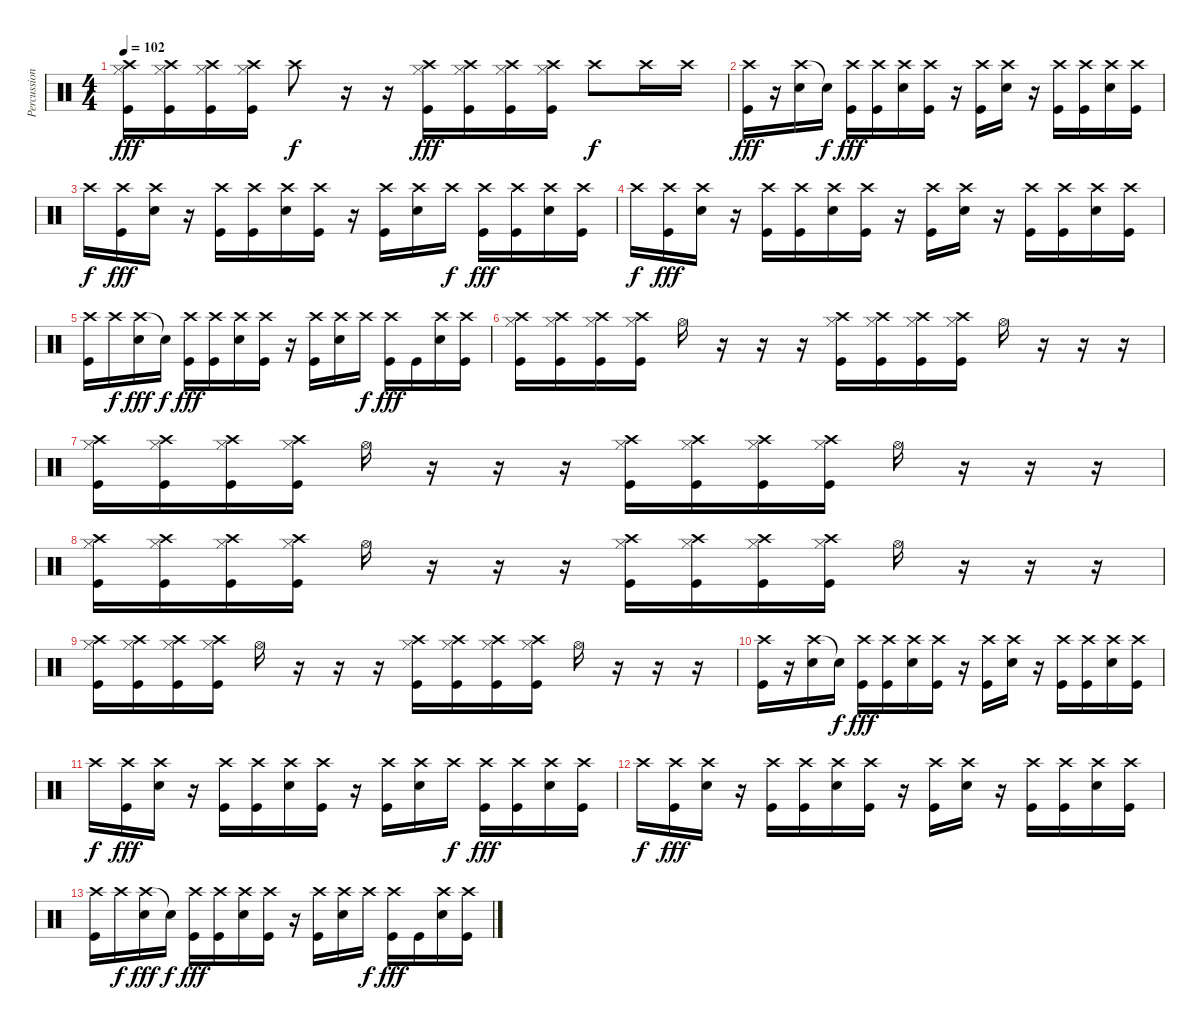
\track ("Percussion" "Percussion") {instrument percussion}
\staff {score}
\articulation defaults
\ts (4 4)
\tempo 102
\clef neutral
\ks c
("Crash high (hit)" "Hi-Hat (closed)" "Kick (hit)").16{dy fff} ("Crash high (hit)" "Hi-Hat (closed)" "Kick (hit)").16 ("Crash high (hit)" "Hi-Hat (closed)" "Kick (hit)").16 ("Crash high (hit)" "Hi-Hat (closed)" "Kick (hit)").16 "Crash high (hit)".8{dy f} r.16 r.16 ("Crash high (hit)" "Hi-Hat (closed)" "Kick (hit)").16{dy fff} ("Crash high (hit)" "Hi-Hat (closed)" "Kick (hit)").16 ("Crash high (hit)" "Hi-Hat (closed)" "Kick (hit)").16 ("Crash high (hit)" "Hi-Hat (closed)" "Kick (hit)").16 "Crash high (hit)".8{dy f} "Crash high (hit)".16 "Crash high (hit)".16 |
("Crash high (hit)" "Kick (hit)").16{dy fff} r.16 ("Crash high (hit)" "Electric Snare (hit)").16 "Snare (hit)"{t}.16{dy f} ("Crash high (hit)" "Kick (hit)").16{dy fff} ("Crash high (hit)" "Kick (hit)").16 ("Crash high (hit)" "Electric Snare (hit)").16 ("Crash high (hit)" "Kick (hit)").16 r.16 ("Crash high (hit)" "Kick (hit)").16 ("Crash high (hit)" "Electric Snare (hit)").16 r.16 ("Crash high (hit)" "Kick (hit)").16 ("Crash high (hit)" "Kick (hit)").16 ("Crash high (hit)" "Electric Snare (hit)").16 ("Crash high (hit)" "Kick (hit)").16 |
"Crash high (hit)".16{dy f} ("Crash high (hit)" "Kick (hit)").16{dy fff} ("Crash high (hit)" "Electric Snare (hit)").16 r.16 ("Crash high (hit)" "Kick (hit)").16 ("Crash high (hit)" "Kick (hit)").16 ("Crash high (hit)" "Electric Snare (hit)").16 ("Crash high (hit)" "Kick (hit)").16 r.16 ("Crash high (hit)" "Kick (hit)").16 ("Crash high (hit)" "Electric Snare (hit)").16 "Crash high (hit)".16{dy f} ("Crash high (hit)" "Kick (hit)").16{dy fff} ("Crash high (hit)" "Kick (hit)").16 ("Crash high (hit)" "Electric Snare (hit)").16 ("Crash high (hit)" "Kick (hit)").16 |
"Crash high (hit)".16{dy f} ("Crash high (hit)" "Kick (hit)").16{dy fff} ("Crash high (hit)" "Electric Snare (hit)").16 r.16 ("Crash high (hit)" "Kick (hit)").16 ("Crash high (hit)" "Kick (hit)").16 ("Crash high (hit)" "Electric Snare (hit)").16 ("Crash high (hit)" "Kick (hit)").16 r.16 ("Crash high (hit)" "Kick (hit)").16 ("Crash high (hit)" "Electric Snare (hit)").16 r.16 ("Crash high (hit)" "Kick (hit)").16 ("Crash high (hit)" "Kick (hit)").16 ("Crash high (hit)" "Electric Snare (hit)").16 ("Crash high (hit)" "Kick (hit)").16 |
("Crash high (hit)" "Kick (hit)").16 "Crash high (hit)".16{dy f} ("Crash high (hit)" "Electric Snare (hit)").16{dy fff} "Snare (hit)"{t}.16{dy f} ("Crash high (hit)" "Kick (hit)").16{dy fff} ("Crash high (hit)" "Kick (hit)").16 ("Crash high (hit)" "Electric Snare (hit)").16 ("Crash high (hit)" "Kick (hit)").16 r.16 ("Crash high (hit)" "Kick (hit)").16 ("Crash high (hit)" "Electric Snare (hit)").16 "Crash high (hit)".16{dy f} ("Crash high (hit)" "Kick (hit)").16{dy fff} "Kick (hit)".16 ("Crash high (hit)" "Electric Snare (hit)").16 ("Crash high (hit)" "Kick (hit)").16 |
("Crash high (hit)" "Hi-Hat (closed)" "Kick (hit)").16 ("Crash high (hit)" "Hi-Hat (closed)" "Kick (hit)").16 ("Crash high (hit)" "Hi-Hat (closed)" "Kick (hit)").16 ("Crash high (hit)" "Hi-Hat (closed)" "Kick (hit)").16 "Hi-Hat (open)".16 r.16 r.16 r.16 ("Crash high (hit)" "Hi-Hat (closed)" "Kick (hit)").16 ("Crash high (hit)" "Hi-Hat (closed)" "Kick (hit)").16 ("Crash high (hit)" "Hi-Hat (closed)" "Kick (hit)").16 ("Crash high (hit)" "Hi-Hat (closed)" "Kick (hit)").16 "Hi-Hat (open)".16 r.16 r.16 r.16 |
("Crash high (hit)" "Hi-Hat (closed)" "Kick (hit)").16 ("Crash high (hit)" "Hi-Hat (closed)" "Kick (hit)").16 ("Crash high (hit)" "Hi-Hat (closed)" "Kick (hit)").16 ("Crash high (hit)" "Hi-Hat (closed)" "Kick (hit)").16 "Hi-Hat (open)".16 r.16 r.16 r.16 ("Crash high (hit)" "Hi-Hat (closed)" "Kick (hit)").16 ("Crash high (hit)" "Hi-Hat (closed)" "Kick (hit)").16 ("Crash high (hit)" "Hi-Hat (closed)" "Kick (hit)").16 ("Crash high (hit)" "Hi-Hat (closed)" "Kick (hit)").16 "Hi-Hat (open)".16 r.16 r.16 r.16 |
("Crash high (hit)" "Hi-Hat (closed)" "Kick (hit)").16 ("Crash high (hit)" "Hi-Hat (closed)" "Kick (hit)").16 ("Crash high (hit)" "Hi-Hat (closed)" "Kick (hit)").16 ("Crash high (hit)" "Hi-Hat (closed)" "Kick (hit)").16 "Hi-Hat (open)".16 r.16 r.16 r.16 ("Crash high (hit)" "Hi-Hat (closed)" "Kick (hit)").16 ("Crash high (hit)" "Hi-Hat (closed)" "Kick (hit)").16 ("Crash high (hit)" "Hi-Hat (closed)" "Kick (hit)").16 ("Crash high (hit)" "Hi-Hat (closed)" "Kick (hit)").16 "Hi-Hat (open)".16 r.16 r.16 r.16 |
("Crash high (hit)" "Hi-Hat (closed)" "Kick (hit)").16 ("Crash high (hit)" "Hi-Hat (closed)" "Kick (hit)").16 ("Crash high (hit)" "Hi-Hat (closed)" "Kick (hit)").16 ("Crash high (hit)" "Hi-Hat (closed)" "Kick (hit)").16 "Hi-Hat (open)".16 r.16 r.16 r.16 ("Crash high (hit)" "Hi-Hat (closed)" "Kick (hit)").16 ("Crash high (hit)" "Hi-Hat (closed)" "Kick (hit)").16 ("Crash high (hit)" "Hi-Hat (closed)" "Kick (hit)").16 ("Crash high (hit)" "Hi-Hat (closed)" "Kick (hit)").16 "Hi-Hat (open)".16 r.16 r.16 r.16 |
("Crash high (hit)" "Kick (hit)").16 r.16 ("Crash high (hit)" "Electric Snare (hit)").16 "Snare (hit)"{t}.16{dy f} ("Crash high (hit)" "Kick (hit)").16{dy fff} ("Crash high (hit)" "Kick (hit)").16 ("Crash high (hit)" "Electric Snare (hit)").16 ("Crash high (hit)" "Kick (hit)").16 r.16 ("Crash high (hit)" "Kick (hit)").16 ("Crash high (hit)" "Electric Snare (hit)").16 r.16 ("Crash high (hit)" "Kick (hit)").16 ("Crash high (hit)" "Kick (hit)").16 ("Crash high (hit)" "Electric Snare (hit)").16 ("Crash high (hit)" "Kick (hit)").16 |
"Crash high (hit)".16{dy f} ("Crash high (hit)" "Kick (hit)").16{dy fff} ("Crash high (hit)" "Electric Snare (hit)").16 r.16 ("Crash high (hit)" "Kick (hit)").16 ("Crash high (hit)" "Kick (hit)").16 ("Crash high (hit)" "Electric Snare (hit)").16 ("Crash high (hit)" "Kick (hit)").16 r.16 ("Crash high (hit)" "Kick (hit)").16 ("Crash high (hit)" "Electric Snare (hit)").16 "Crash high (hit)".16{dy f} ("Crash high (hit)" "Kick (hit)").16{dy fff} ("Crash high (hit)" "Kick (hit)").16 ("Crash high (hit)" "Electric Snare (hit)").16 ("Crash high (hit)" "Kick (hit)").16 |
"Crash high (hit)".16{dy f} ("Crash high (hit)" "Kick (hit)").16{dy fff} ("Crash high (hit)" "Electric Snare (hit)").16 r.16 ("Crash high (hit)" "Kick (hit)").16 ("Crash high (hit)" "Kick (hit)").16 ("Crash high (hit)" "Electric Snare (hit)").16 ("Crash high (hit)" "Kick (hit)").16 r.16 ("Crash high (hit)" "Kick (hit)").16 ("Crash high (hit)" "Electric Snare (hit)").16 r.16 ("Crash high (hit)" "Kick (hit)").16 ("Crash high (hit)" "Kick (hit)").16 ("Crash high (hit)" "Electric Snare (hit)").16 ("Crash high (hit)" "Kick (hit)").16 |
("Crash high (hit)" "Kick (hit)").16 "Crash high (hit)".16{dy f} ("Crash high (hit)" "Electric Snare (hit)").16{dy fff} "Snare (hit)"{t}.16{dy f} ("Crash high (hit)" "Kick (hit)").16{dy fff} ("Crash high (hit)" "Kick (hit)").16 ("Crash high (hit)" "Electric Snare (hit)").16 ("Crash high (hit)" "Kick (hit)").16 r.16 ("Crash high (hit)" "Kick (hit)").16 ("Crash high (hit)" "Electric Snare (hit)").16 "Crash high (hit)".16{dy f} ("Crash high (hit)" "Kick (hit)").16{dy fff} "Kick (hit)".16 ("Crash high (hit)" "Electric Snare (hit)").16 ("Crash high (hit)" "Kick (hit)").16
